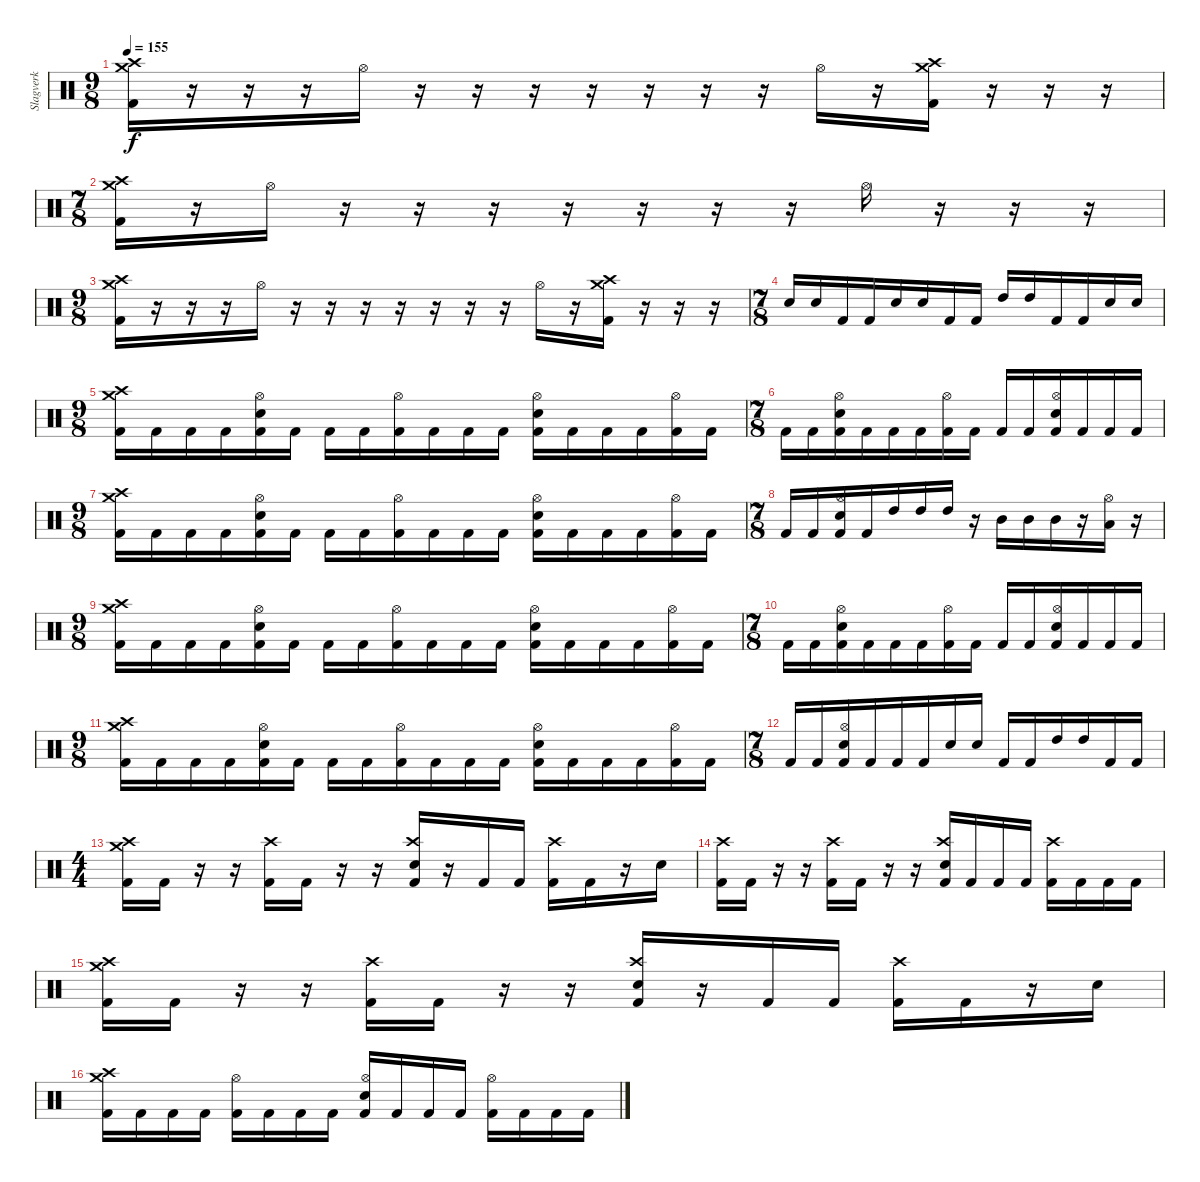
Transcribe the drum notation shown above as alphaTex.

\track ("Slagverk" "Slagverk") {instrument percussion}
\staff {score}
\articulation defaults
\ts (9 8)
\tempo 155
\clef neutral
\ks c
("Kick (hit) 2" "Crash medium (hit)" "Crash high (hit)").16{dy f} r.16 r.16 r.16 "Hi-Hat (open)".16 r.16 r.16 r.16 r.16 r.16 r.16 r.16 "Hi-Hat (open)".16 r.16 ("Kick (hit) 2" "Crash medium (hit)" "Crash high (hit)").16 r.16 r.16 r.16 |
\ts (7 8)
("Kick (hit) 2" "Crash medium (hit)" "Crash high (hit)").16 r.16 "Hi-Hat (open)".16 r.16 r.16 r.16 r.16 r.16 r.16 r.16 "Hi-Hat (open)".16 r.16 r.16 r.16 |
\ts (9 8)
("Kick (hit) 2" "Crash medium (hit)" "Crash high (hit)").16 r.16 r.16 r.16 "Hi-Hat (open)".16 r.16 r.16 r.16 r.16 r.16 r.16 r.16 "Hi-Hat (open)".16 r.16 ("Kick (hit) 2" "Crash medium (hit)" "Crash high (hit)").16 r.16 r.16 r.16 |
\ts (7 8)
"Electric Snare (hit)".16 "Electric Snare (hit)".16 "Kick (hit) 2".16 "Kick (hit) 2".16 "Electric Snare (hit)".16 "Electric Snare (hit)".16 "Kick (hit) 2".16 "Kick (hit) 2".16 "High Tom (hit)".16 "High Tom (hit)".16 "Kick (hit) 2".16 "Kick (hit) 2".16 "Electric Snare (hit)".16 "Electric Snare (hit)".16 |
\ts (9 8)
("Kick (hit) 2" "Crash medium (hit)" "Crash high (hit)").16 "Kick (hit) 2".16 "Kick (hit) 2".16 "Kick (hit) 2".16 ("Kick (hit) 2" "Electric Snare (hit)" "Hi-Hat (open)").16 "Kick (hit) 2".16 "Kick (hit) 2".16 "Kick (hit) 2".16 ("Kick (hit) 2" "Hi-Hat (open)").16 "Kick (hit) 2".16 "Kick (hit) 2".16 "Kick (hit) 2".16 ("Kick (hit) 2" "Electric Snare (hit)" "Hi-Hat (open)").16 "Kick (hit) 2".16 "Kick (hit) 2".16 "Kick (hit) 2".16 ("Kick (hit) 2" "Hi-Hat (open)").16 "Kick (hit) 2".16 |
\ts (7 8)
"Kick (hit) 2".16 "Kick (hit) 2".16 ("Kick (hit) 2" "Electric Snare (hit)" "Hi-Hat (open)").16 "Kick (hit) 2".16 "Kick (hit) 2".16 "Kick (hit) 2".16 ("Kick (hit) 2" "Hi-Hat (open)").16 "Kick (hit) 2".16 "Kick (hit) 2".16 "Kick (hit) 2".16 ("Kick (hit) 2" "Electric Snare (hit)" "Hi-Hat (open)").16 "Kick (hit) 2".16 "Kick (hit) 2".16 "Kick (hit) 2".16 |
\ts (9 8)
("Kick (hit) 2" "Crash medium (hit)" "Crash high (hit)").16 "Kick (hit) 2".16 "Kick (hit) 2".16 "Kick (hit) 2".16 ("Kick (hit) 2" "Electric Snare (hit)" "Hi-Hat (open)").16 "Kick (hit) 2".16 "Kick (hit) 2".16 "Kick (hit) 2".16 ("Kick (hit) 2" "Hi-Hat (open)").16 "Kick (hit) 2".16 "Kick (hit) 2".16 "Kick (hit) 2".16 ("Kick (hit) 2" "Electric Snare (hit)" "Hi-Hat (open)").16 "Kick (hit) 2".16 "Kick (hit) 2".16 "Kick (hit) 2".16 ("Kick (hit) 2" "Hi-Hat (open)").16 "Kick (hit) 2".16 |
\ts (7 8)
"Kick (hit) 2".16 "Kick (hit) 2".16 ("Kick (hit) 2" "Electric Snare (hit)" "Hi-Hat (open)").16 "Kick (hit) 2".16 "High Tom (hit)".16 "High Tom (hit)".16 "High Tom (hit)".16 r.16 "Mid Tom (hit)".16 "Mid Tom (hit)".16 "Mid Tom (hit)".16 r.16 ("Low Tom (hit)" "Hi-Hat (open)").16 r.16 |
\ts (9 8)
("Kick (hit) 2" "Crash medium (hit)" "Crash high (hit)").16 "Kick (hit) 2".16 "Kick (hit) 2".16 "Kick (hit) 2".16 ("Kick (hit) 2" "Electric Snare (hit)" "Hi-Hat (open)").16 "Kick (hit) 2".16 "Kick (hit) 2".16 "Kick (hit) 2".16 ("Kick (hit) 2" "Hi-Hat (open)").16 "Kick (hit) 2".16 "Kick (hit) 2".16 "Kick (hit) 2".16 ("Kick (hit) 2" "Electric Snare (hit)" "Hi-Hat (open)").16 "Kick (hit) 2".16 "Kick (hit) 2".16 "Kick (hit) 2".16 ("Kick (hit) 2" "Hi-Hat (open)").16 "Kick (hit) 2".16 |
\ts (7 8)
"Kick (hit) 2".16 "Kick (hit) 2".16 ("Kick (hit) 2" "Electric Snare (hit)" "Hi-Hat (open)").16 "Kick (hit) 2".16 "Kick (hit) 2".16 "Kick (hit) 2".16 ("Kick (hit) 2" "Hi-Hat (open)").16 "Kick (hit) 2".16 "Kick (hit) 2".16 "Kick (hit) 2".16 ("Kick (hit) 2" "Electric Snare (hit)" "Hi-Hat (open)").16 "Kick (hit) 2".16 "Kick (hit) 2".16 "Kick (hit) 2".16 |
\ts (9 8)
("Kick (hit) 2" "Crash medium (hit)" "Crash high (hit)").16 "Kick (hit) 2".16 "Kick (hit) 2".16 "Kick (hit) 2".16 ("Kick (hit) 2" "Electric Snare (hit)" "Hi-Hat (open)").16 "Kick (hit) 2".16 "Kick (hit) 2".16 "Kick (hit) 2".16 ("Kick (hit) 2" "Hi-Hat (open)").16 "Kick (hit) 2".16 "Kick (hit) 2".16 "Kick (hit) 2".16 ("Kick (hit) 2" "Electric Snare (hit)" "Hi-Hat (open)").16 "Kick (hit) 2".16 "Kick (hit) 2".16 "Kick (hit) 2".16 ("Kick (hit) 2" "Hi-Hat (open)").16 "Kick (hit) 2".16 |
\ts (7 8)
"Kick (hit) 2".16 "Kick (hit) 2".16 ("Kick (hit) 2" "Electric Snare (hit)" "Hi-Hat (open)").16 "Kick (hit) 2".16 "Kick (hit) 2".16 "Kick (hit) 2".16 "Electric Snare (hit)".16 "Electric Snare (hit)".16 "Kick (hit) 2".16 "Kick (hit) 2".16 "High Tom (hit)".16 "High Tom (hit)".16 "Kick (hit) 2".16 "Kick (hit) 2".16 |
\ts (4 4)
("Kick (hit) 2" "Crash medium (hit)" "Crash high (hit)").16 "Kick (hit) 2".16 r.16 r.16 ("Kick (hit) 2" "Crash high (hit)").16 "Kick (hit) 2".16 r.16 r.16 ("Kick (hit) 2" "Electric Snare (hit)" "Crash high (hit)").16 r.16 "Kick (hit) 2".16 "Kick (hit) 2".16 ("Kick (hit) 2" "Crash high (hit)").16 "Kick (hit) 2".16 r.16 "Electric Snare (hit)".16 |
("Kick (hit) 2" "Crash high (hit)").16 "Kick (hit) 2".16 r.16 r.16 ("Kick (hit) 2" "Crash high (hit)").16 "Kick (hit) 2".16 r.16 r.16 ("Kick (hit) 2" "Electric Snare (hit)" "Crash high (hit)").16 "Kick (hit) 2".16 "Kick (hit) 2".16 "Kick (hit) 2".16 ("Kick (hit) 2" "Crash high (hit)").16 "Kick (hit) 2".16 "Kick (hit) 2".16 "Kick (hit) 2".16 |
("Kick (hit) 2" "Crash medium (hit)" "Crash high (hit)").16 "Kick (hit) 2".16 r.16 r.16 ("Kick (hit) 2" "Crash high (hit)").16 "Kick (hit) 2".16 r.16 r.16 ("Kick (hit) 2" "Electric Snare (hit)" "Crash high (hit)").16 r.16 "Kick (hit) 2".16 "Kick (hit) 2".16 ("Kick (hit) 2" "Crash high (hit)").16 "Kick (hit) 2".16 r.16 "Electric Snare (hit)".16 |
("Kick (hit) 2" "Crash medium (hit)" "Crash high (hit)").16 "Kick (hit) 2".16 "Kick (hit) 2".16 "Kick (hit) 2".16 ("Kick (hit) 2" "Hi-Hat (open)").16 "Kick (hit) 2".16 "Kick (hit) 2".16 "Kick (hit) 2".16 ("Kick (hit) 2" "Electric Snare (hit)" "Hi-Hat (open)").16 "Kick (hit) 2".16 "Kick (hit) 2".16 "Kick (hit) 2".16 ("Kick (hit) 2" "Hi-Hat (open)").16 "Kick (hit) 2".16 "Kick (hit) 2".16 "Kick (hit) 2".16
